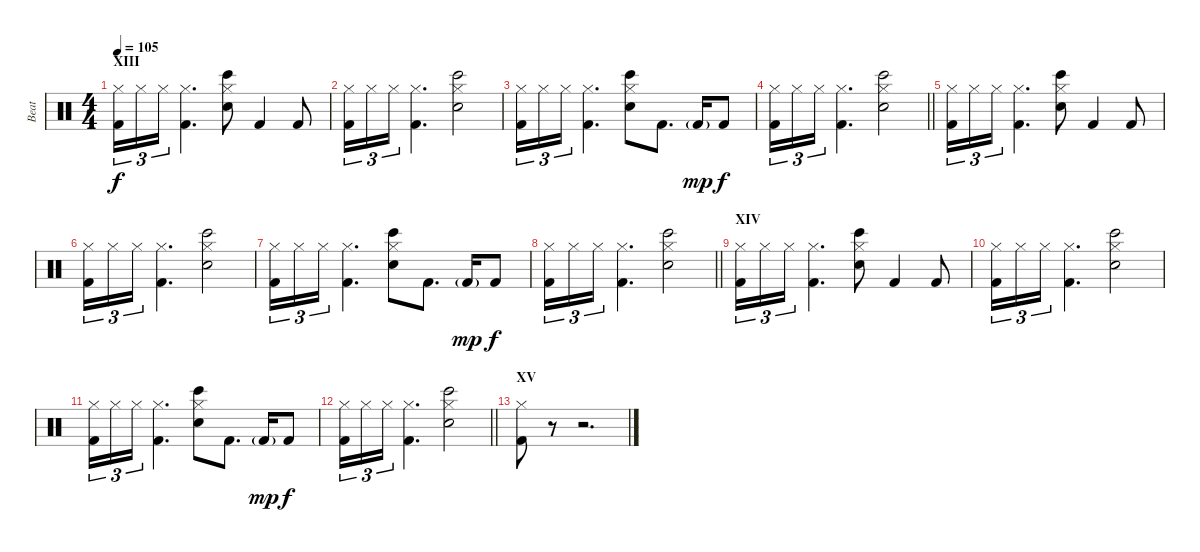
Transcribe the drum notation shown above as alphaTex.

\track ("Beat" "Beat") {instrument percussion}
\staff {score}
\articulation defaults
\ts (4 4)
\section ("" "XIII")
\tempo 105
\clef neutral
\ks c
("Hi-Hat (closed)" "Kick (hit) 2").16{tu (3 2) dy f} "Hi-Hat (closed)".16{tu (3 2)} "Hi-Hat (closed)".16{tu (3 2)} ("Hi-Hat (closed)" "Kick (hit) 2").4{d} ("Hi-Hat (closed)" "Snare (hit) 2" "Bongo High (hit)").8 "Kick (hit) 2".4 "Kick (hit) 2".8 |
("Hi-Hat (closed)" "Kick (hit) 2").16{tu (3 2)} "Hi-Hat (closed)".16{tu (3 2)} "Hi-Hat (closed)".16{tu (3 2)} ("Hi-Hat (closed)" "Kick (hit) 2").4{d} ("Hi-Hat (closed)" "Snare (hit) 2" "Bongo High (hit)").2 |
("Hi-Hat (closed)" "Kick (hit) 2").16{tu (3 2)} "Hi-Hat (closed)".16{tu (3 2)} "Hi-Hat (closed)".16{tu (3 2)} ("Hi-Hat (closed)" "Kick (hit) 2").4{d} ("Hi-Hat (closed)" "Snare (hit) 2" "Bongo High (hit)").8 "Kick (hit) 2".8{d} "Kick (hit) 2"{g}.16{dy mp} "Kick (hit) 2".8{dy f} |
\barLineRight lightlight
("Hi-Hat (closed)" "Kick (hit) 2").16{tu (3 2)} "Hi-Hat (closed)".16{tu (3 2)} "Hi-Hat (closed)".16{tu (3 2)} ("Hi-Hat (closed)" "Kick (hit) 2").4{d} ("Hi-Hat (closed)" "Snare (hit) 2" "Bongo High (hit)").2 |
("Hi-Hat (closed)" "Kick (hit) 2").16{tu (3 2)} "Hi-Hat (closed)".16{tu (3 2)} "Hi-Hat (closed)".16{tu (3 2)} ("Hi-Hat (closed)" "Kick (hit) 2").4{d} ("Hi-Hat (closed)" "Snare (hit) 2" "Bongo High (hit)").8 "Kick (hit) 2".4 "Kick (hit) 2".8 |
("Hi-Hat (closed)" "Kick (hit) 2").16{tu (3 2)} "Hi-Hat (closed)".16{tu (3 2)} "Hi-Hat (closed)".16{tu (3 2)} ("Hi-Hat (closed)" "Kick (hit) 2").4{d} ("Hi-Hat (closed)" "Snare (hit) 2" "Bongo High (hit)").2 |
("Hi-Hat (closed)" "Kick (hit) 2").16{tu (3 2)} "Hi-Hat (closed)".16{tu (3 2)} "Hi-Hat (closed)".16{tu (3 2)} ("Hi-Hat (closed)" "Kick (hit) 2").4{d} ("Hi-Hat (closed)" "Snare (hit) 2" "Bongo High (hit)").8 "Kick (hit) 2".8{d} "Kick (hit) 2"{g}.16{dy mp} "Kick (hit) 2".8{dy f} |
\barLineRight lightlight
("Hi-Hat (closed)" "Kick (hit) 2").16{tu (3 2)} "Hi-Hat (closed)".16{tu (3 2)} "Hi-Hat (closed)".16{tu (3 2)} ("Hi-Hat (closed)" "Kick (hit) 2").4{d} ("Hi-Hat (closed)" "Snare (hit) 2" "Bongo High (hit)").2 |
\section ("" "XIV")
("Hi-Hat (closed)" "Kick (hit) 2").16{tu (3 2)} "Hi-Hat (closed)".16{tu (3 2)} "Hi-Hat (closed)".16{tu (3 2)} ("Hi-Hat (closed)" "Kick (hit) 2").4{d} ("Hi-Hat (closed)" "Snare (hit) 2" "Bongo High (hit)").8 "Kick (hit) 2".4 "Kick (hit) 2".8 |
("Hi-Hat (closed)" "Kick (hit) 2").16{tu (3 2)} "Hi-Hat (closed)".16{tu (3 2)} "Hi-Hat (closed)".16{tu (3 2)} ("Hi-Hat (closed)" "Kick (hit) 2").4{d} ("Hi-Hat (closed)" "Snare (hit) 2" "Bongo High (hit)").2 |
("Hi-Hat (closed)" "Kick (hit) 2").16{tu (3 2)} "Hi-Hat (closed)".16{tu (3 2)} "Hi-Hat (closed)".16{tu (3 2)} ("Hi-Hat (closed)" "Kick (hit) 2").4{d} ("Hi-Hat (closed)" "Snare (hit) 2" "Bongo High (hit)").8 "Kick (hit) 2".8{d} "Kick (hit) 2"{g}.16{dy mp} "Kick (hit) 2".8{dy f} |
\barLineRight lightlight
("Hi-Hat (closed)" "Kick (hit) 2").16{tu (3 2)} "Hi-Hat (closed)".16{tu (3 2)} "Hi-Hat (closed)".16{tu (3 2)} ("Hi-Hat (closed)" "Kick (hit) 2").4{d} ("Hi-Hat (closed)" "Snare (hit) 2" "Bongo High (hit)").2 |
\section ("" "XV")
("Hi-Hat (closed)" "Kick (hit) 2").8 r.8 r.2{d}
